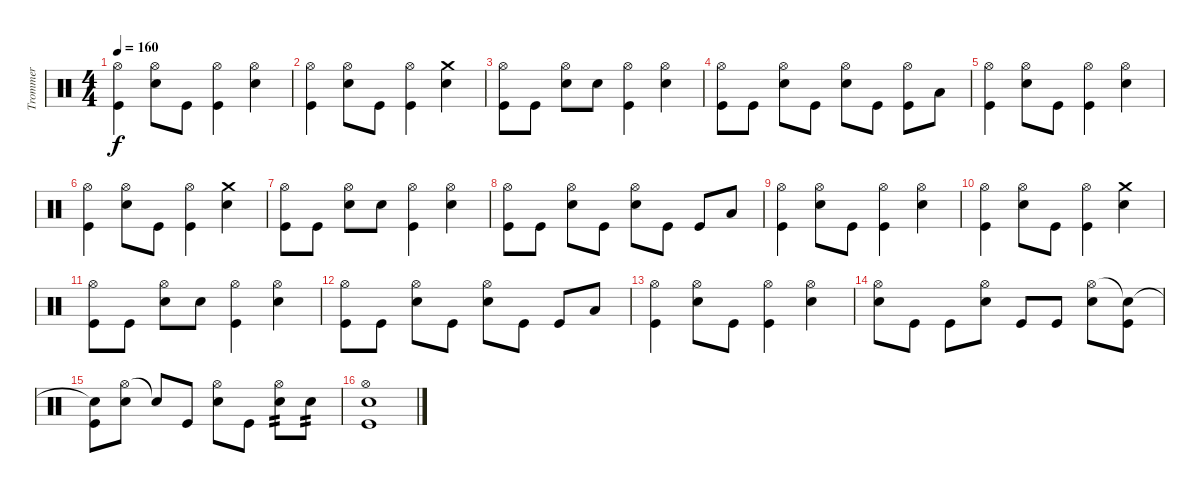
\track ("Trommer" "Trommer") {instrument percussion}
\staff {score}
\articulation defaults
\ts (4 4)
\tempo 160
\clef neutral
\ks c
("Hi-Hat (open)" "Kick (hit)").4{dy f} ("Hi-Hat (open)" "Snare (hit) 2").8 "Kick (hit)".8 ("Hi-Hat (open)" "Kick (hit)").4 ("Hi-Hat (open)" "Snare (hit) 2").4 |
("Hi-Hat (open)" "Kick (hit)").4 ("Hi-Hat (open)" "Snare (hit) 2").8 "Kick (hit)".8 ("Hi-Hat (open)" "Kick (hit)").4 ("Crash medium (hit)" "Snare (hit) 2").4 |
("Hi-Hat (open)" "Kick (hit)").8 "Kick (hit)".8 ("Hi-Hat (open)" "Snare (hit) 2").8 "Snare (hit) 2".8 ("Hi-Hat (open)" "Kick (hit)").4 ("Hi-Hat (open)" "Snare (hit) 2").4 |
("Hi-Hat (open)" "Kick (hit)").8 "Kick (hit)".8 ("Hi-Hat (open)" "Snare (hit) 2").8 "Kick (hit)".8 ("Hi-Hat (open)" "Snare (hit) 2").8 "Kick (hit)".8 ("Hi-Hat (open)" "Kick (hit)").8 "Low Floor Tom (hit)".8 |
("Hi-Hat (open)" "Kick (hit)").4 ("Hi-Hat (open)" "Snare (hit) 2").8 "Kick (hit)".8 ("Hi-Hat (open)" "Kick (hit)").4 ("Hi-Hat (open)" "Snare (hit) 2").4 |
("Hi-Hat (open)" "Kick (hit)").4 ("Hi-Hat (open)" "Snare (hit) 2").8 "Kick (hit)".8 ("Hi-Hat (open)" "Kick (hit)").4 ("Crash medium (hit)" "Snare (hit) 2").4 |
("Hi-Hat (open)" "Kick (hit)").8 "Kick (hit)".8 ("Hi-Hat (open)" "Snare (hit) 2").8 "Snare (hit) 2".8 ("Hi-Hat (open)" "Kick (hit)").4 ("Hi-Hat (open)" "Snare (hit) 2").4 |
("Hi-Hat (open)" "Kick (hit)").8 "Kick (hit)".8 ("Hi-Hat (open)" "Snare (hit) 2").8 "Kick (hit)".8 ("Hi-Hat (open)" "Snare (hit) 2").8 "Kick (hit)".8 "Kick (hit)".8 "Low Floor Tom (hit)".8 |
("Hi-Hat (open)" "Kick (hit)").4 ("Hi-Hat (open)" "Snare (hit) 2").8 "Kick (hit)".8 ("Hi-Hat (open)" "Kick (hit)").4 ("Hi-Hat (open)" "Snare (hit) 2").4 |
("Hi-Hat (open)" "Kick (hit)").4 ("Hi-Hat (open)" "Snare (hit) 2").8 "Kick (hit)".8 ("Hi-Hat (open)" "Kick (hit)").4 ("Crash medium (hit)" "Snare (hit) 2").4 |
("Hi-Hat (open)" "Kick (hit)").8 "Kick (hit)".8 ("Hi-Hat (open)" "Snare (hit) 2").8 "Snare (hit) 2".8 ("Hi-Hat (open)" "Kick (hit)").4 ("Hi-Hat (open)" "Snare (hit) 2").4 |
("Hi-Hat (open)" "Kick (hit)").8 "Kick (hit)".8 ("Hi-Hat (open)" "Snare (hit) 2").8 "Kick (hit)".8 ("Hi-Hat (open)" "Snare (hit) 2").8 "Kick (hit)".8 "Kick (hit)".8 "Low Floor Tom (hit)".8 |
("Hi-Hat (open)" "Kick (hit)").4 ("Hi-Hat (open)" "Snare (hit) 2").8 "Kick (hit)".8 ("Hi-Hat (open)" "Kick (hit)").4 ("Hi-Hat (open)" "Snare (hit) 2").4 |
("Hi-Hat (open)" "Snare (hit) 2").8 "Kick (hit)".8 "Kick (hit)".8 ("Hi-Hat (open)" "Snare (hit) 2").8 "Kick (hit)".8 "Kick (hit)".8 ("Hi-Hat (open)" "Snare (hit) 2").8 ("Snare (hit)"{t} "Kick (hit)").8 |
("Snare (hit)"{t} "Kick (hit)").8 ("Hi-Hat (open)" "Snare (hit) 2").8 "Snare (hit) 2"{t}.8 "Kick (hit)".8 ("Hi-Hat (open)" "Snare (hit) 2").8 "Kick (hit)".8 ("Hi-Hat (open)" "Snare (hit) 2").8{tp 2} "Snare (hit) 2".8{tp 2} |
("Hi-Hat (open)" "Snare (hit) 2" "Kick (hit)").1
